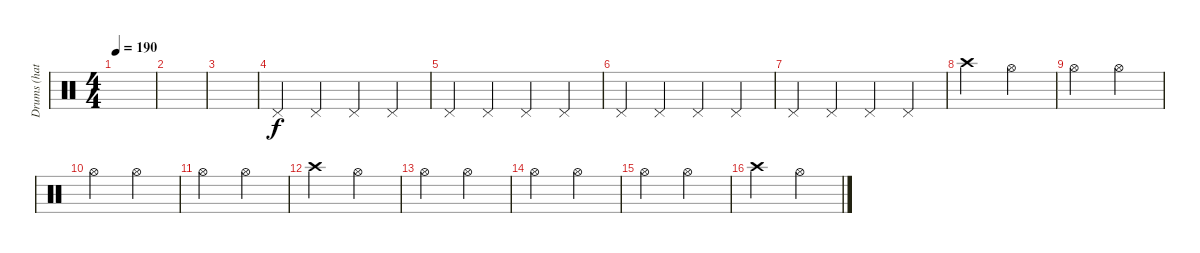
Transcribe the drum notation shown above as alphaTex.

\track ("Drums (hats)" "Drums (hat") {instrument percussion}
\staff {score}
\articulation defaults
\ts (4 4)
\tempo 190
\clef neutral
\ks c
|
|
|
"Pedal Hi-Hat (hit)".4 "Pedal Hi-Hat (hit)".4 "Pedal Hi-Hat (hit)".4 "Pedal Hi-Hat (hit)".4 |
"Pedal Hi-Hat (hit)".4 "Pedal Hi-Hat (hit)".4 "Pedal Hi-Hat (hit)".4 "Pedal Hi-Hat (hit)".4 |
"Pedal Hi-Hat (hit)".4 "Pedal Hi-Hat (hit)".4 "Pedal Hi-Hat (hit)".4 "Pedal Hi-Hat (hit)".4 |
"Pedal Hi-Hat (hit)".4 "Pedal Hi-Hat (hit)".4 "Pedal Hi-Hat (hit)".4 "Pedal Hi-Hat (hit)".4 |
"Crash high (hit)".2 "Hi-Hat (open)".2 |
"Hi-Hat (open)".2 "Hi-Hat (open)".2 |
"Hi-Hat (open)".2 "Hi-Hat (open)".2 |
"Hi-Hat (open)".2 "Hi-Hat (open)".2 |
"Crash high (hit)".2 "Hi-Hat (open)".2 |
"Hi-Hat (open)".2 "Hi-Hat (open)".2 |
"Hi-Hat (open)".2 "Hi-Hat (open)".2 |
"Hi-Hat (open)".2 "Hi-Hat (open)".2 |
"Crash high (hit)".2 "Hi-Hat (open)".2
